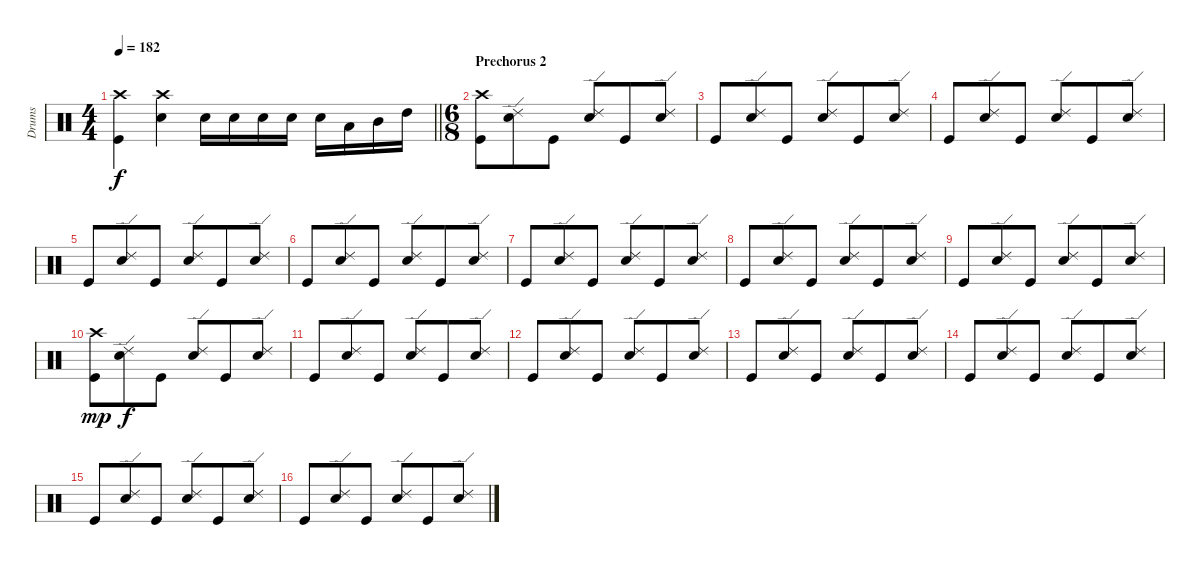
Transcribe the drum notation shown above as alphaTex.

\track ("Drums" "Drums") {instrument percussion}
\staff {score}
\articulation defaults
\ts (4 4)
\tempo 182
\clef neutral
\barLineRight lightlight
\ks c
("Crash high (hit)" "Kick (hit)").4{dy f} ("Crash high (hit)" "Electric Snare (hit)").4 "Electric Snare (hit)".16 "Electric Snare (hit)".16 "Electric Snare (hit)".16 "Electric Snare (hit)".16 "Electric Snare (hit)".16 "Low Tom (hit)".16 "Mid Tom (hit)".16 "High Tom (hit)".16 |
\ts (6 8)
\section ("" "Prechorus 2")
("Crash high (hit)" "Kick (hit)").8 ("Ride (edge) 2" "Electric Snare (hit)").8 "Kick (hit)".8 ("Ride (edge) 2" "Electric Snare (hit)").8 "Kick (hit)".8 ("Ride (edge) 2" "Electric Snare (hit)").8 |
"Kick (hit)".8 ("Ride (edge) 2" "Electric Snare (hit)").8 "Kick (hit)".8 ("Ride (edge) 2" "Electric Snare (hit)").8 "Kick (hit)".8 ("Ride (edge) 2" "Electric Snare (hit)").8 |
"Kick (hit)".8 ("Ride (edge) 2" "Electric Snare (hit)").8 "Kick (hit)".8 ("Ride (edge) 2" "Electric Snare (hit)").8 "Kick (hit)".8 ("Ride (edge) 2" "Electric Snare (hit)").8 |
"Kick (hit)".8 ("Ride (edge) 2" "Electric Snare (hit)").8 "Kick (hit)".8 ("Ride (edge) 2" "Electric Snare (hit)").8 "Kick (hit)".8 ("Ride (edge) 2" "Electric Snare (hit)").8 |
"Kick (hit)".8 ("Ride (edge) 2" "Electric Snare (hit)").8 "Kick (hit)".8 ("Ride (edge) 2" "Electric Snare (hit)").8 "Kick (hit)".8 ("Ride (edge) 2" "Electric Snare (hit)").8 |
"Kick (hit)".8 ("Ride (edge) 2" "Electric Snare (hit)").8 "Kick (hit)".8 ("Ride (edge) 2" "Electric Snare (hit)").8 "Kick (hit)".8 ("Ride (edge) 2" "Electric Snare (hit)").8 |
"Kick (hit)".8 ("Ride (edge) 2" "Electric Snare (hit)").8 "Kick (hit)".8 ("Ride (edge) 2" "Electric Snare (hit)").8 "Kick (hit)".8 ("Ride (edge) 2" "Electric Snare (hit)").8 |
"Kick (hit)".8 ("Ride (edge) 2" "Electric Snare (hit)").8 "Kick (hit)".8 ("Ride (edge) 2" "Electric Snare (hit)").8 "Kick (hit)".8 ("Ride (edge) 2" "Electric Snare (hit)").8 |
("Crash high (hit)" "Kick (hit)").8{dy mp} ("Ride (edge) 2" "Electric Snare (hit)").8{dy f} "Kick (hit)".8 ("Ride (edge) 2" "Electric Snare (hit)").8 "Kick (hit)".8 ("Ride (edge) 2" "Electric Snare (hit)").8 |
"Kick (hit)".8 ("Ride (edge) 2" "Electric Snare (hit)").8 "Kick (hit)".8 ("Ride (edge) 2" "Electric Snare (hit)").8 "Kick (hit)".8 ("Ride (edge) 2" "Electric Snare (hit)").8 |
"Kick (hit)".8 ("Ride (edge) 2" "Electric Snare (hit)").8 "Kick (hit)".8 ("Ride (edge) 2" "Electric Snare (hit)").8 "Kick (hit)".8 ("Ride (edge) 2" "Electric Snare (hit)").8 |
"Kick (hit)".8 ("Ride (edge) 2" "Electric Snare (hit)").8 "Kick (hit)".8 ("Ride (edge) 2" "Electric Snare (hit)").8 "Kick (hit)".8 ("Ride (edge) 2" "Electric Snare (hit)").8 |
"Kick (hit)".8 ("Ride (edge) 2" "Electric Snare (hit)").8 "Kick (hit)".8 ("Ride (edge) 2" "Electric Snare (hit)").8 "Kick (hit)".8 ("Ride (edge) 2" "Electric Snare (hit)").8 |
"Kick (hit)".8 ("Ride (edge) 2" "Electric Snare (hit)").8 "Kick (hit)".8 ("Ride (edge) 2" "Electric Snare (hit)").8 "Kick (hit)".8 ("Ride (edge) 2" "Electric Snare (hit)").8 |
"Kick (hit)".8 ("Ride (edge) 2" "Electric Snare (hit)").8 "Kick (hit)".8 ("Ride (edge) 2" "Electric Snare (hit)").8 "Kick (hit)".8 ("Ride (edge) 2" "Electric Snare (hit)").8
